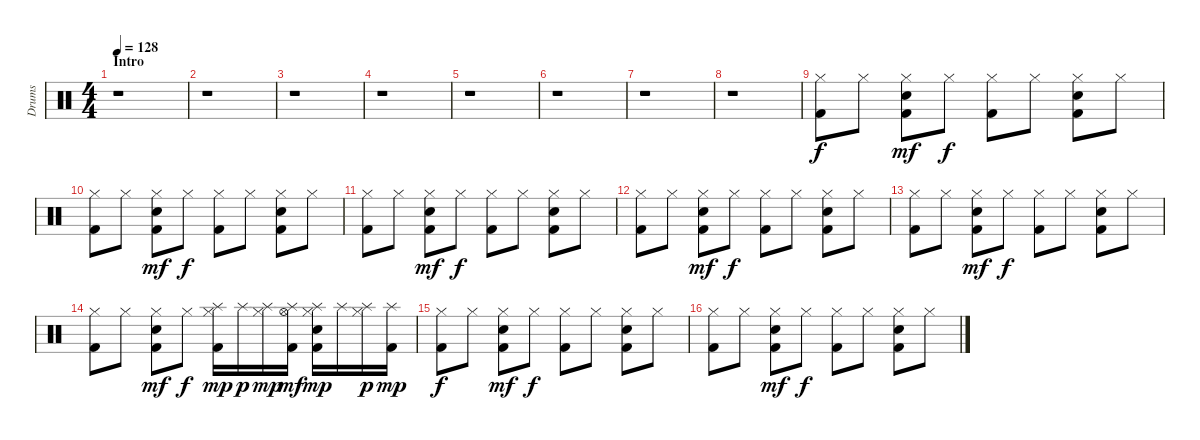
\track ("Drums" "Drums") {instrument percussion}
\staff {score}
\articulation defaults
\ts (4 4)
\section ("" "Intro")
\tempo 128
\clef neutral
\ks c
r.1{dy f} |
r.1 |
r.1 |
r.1 |
r.1 |
r.1 |
r.1 |
r.1 |
("Kick (hit) 2" "Hi-Hat (closed)").8 "Hi-Hat (closed)".8 ("Kick (hit) 2" "Snare (hit) 2" "Hi-Hat (closed)").8{dy mf} "Hi-Hat (closed)".8{dy f} ("Kick (hit) 2" "Hi-Hat (closed)").8 "Hi-Hat (closed)".8 ("Kick (hit) 2" "Snare (hit) 2" "Hi-Hat (closed)").8 "Hi-Hat (closed)".8 |
("Kick (hit) 2" "Hi-Hat (closed)").8 "Hi-Hat (closed)".8 ("Kick (hit) 2" "Snare (hit) 2" "Hi-Hat (closed)").8{dy mf} "Hi-Hat (closed)".8{dy f} ("Kick (hit) 2" "Hi-Hat (closed)").8 "Hi-Hat (closed)".8 ("Kick (hit) 2" "Snare (hit) 2" "Hi-Hat (closed)").8 "Hi-Hat (closed)".8 |
("Kick (hit) 2" "Hi-Hat (closed)").8 "Hi-Hat (closed)".8 ("Kick (hit) 2" "Snare (hit) 2" "Hi-Hat (closed)").8{dy mf} "Hi-Hat (closed)".8{dy f} ("Kick (hit) 2" "Hi-Hat (closed)").8 "Hi-Hat (closed)".8 ("Kick (hit) 2" "Snare (hit) 2" "Hi-Hat (closed)").8 "Hi-Hat (closed)".8 |
("Kick (hit) 2" "Hi-Hat (closed)").8 "Hi-Hat (closed)".8 ("Kick (hit) 2" "Snare (hit) 2" "Hi-Hat (closed)").8{dy mf} "Hi-Hat (closed)".8{dy f} ("Kick (hit) 2" "Hi-Hat (closed)").8 "Hi-Hat (closed)".8 ("Kick (hit) 2" "Snare (hit) 2" "Hi-Hat (closed)").8 "Hi-Hat (closed)".8 |
("Kick (hit) 2" "Hi-Hat (closed)").8 "Hi-Hat (closed)".8 ("Kick (hit) 2" "Snare (hit) 2" "Hi-Hat (closed)").8{dy mf} "Hi-Hat (closed)".8{dy f} ("Kick (hit) 2" "Hi-Hat (closed)").8 "Hi-Hat (closed)".8 ("Kick (hit) 2" "Snare (hit) 2" "Hi-Hat (closed)").8 "Hi-Hat (closed)".8 |
("Kick (hit) 2" "Hi-Hat (closed)").8 "Hi-Hat (closed)".8 ("Kick (hit) 2" "Snare (hit) 2" "Hi-Hat (closed)").8{dy mf} "Hi-Hat (closed)".8{dy f} ("Splash (hit)" "Kick (hit) 2" "Hi-Hat (closed)").16{dy mp} "Splash (hit)".16{dy p} ("Splash (hit)" "Hi-Hat (closed)").16{dy mp} ("Splash (hit)" "Kick (hit) 2" "Hi-Hat (open)").16{dy mf} ("Splash (hit)" "Kick (hit) 2" "Snare (hit) 2" "Hi-Hat (closed)").16{dy mp} "Splash (hit)".16 ("Splash (hit)" "Hi-Hat (closed)").16{dy p} ("Splash (hit)" "Kick (hit) 2").16{dy mp} |
("Kick (hit) 2" "Hi-Hat (closed)").8{dy f} "Hi-Hat (closed)".8 ("Kick (hit) 2" "Snare (hit) 2" "Hi-Hat (closed)").8{dy mf} "Hi-Hat (closed)".8{dy f} ("Kick (hit) 2" "Hi-Hat (closed)").8 "Hi-Hat (closed)".8 ("Kick (hit) 2" "Snare (hit) 2" "Hi-Hat (closed)").8 "Hi-Hat (closed)".8 |
("Kick (hit) 2" "Hi-Hat (closed)").8 "Hi-Hat (closed)".8 ("Kick (hit) 2" "Snare (hit) 2" "Hi-Hat (closed)").8{dy mf} "Hi-Hat (closed)".8{dy f} ("Kick (hit) 2" "Hi-Hat (closed)").8 "Hi-Hat (closed)".8 ("Kick (hit) 2" "Snare (hit) 2" "Hi-Hat (closed)").8 "Hi-Hat (closed)".8
